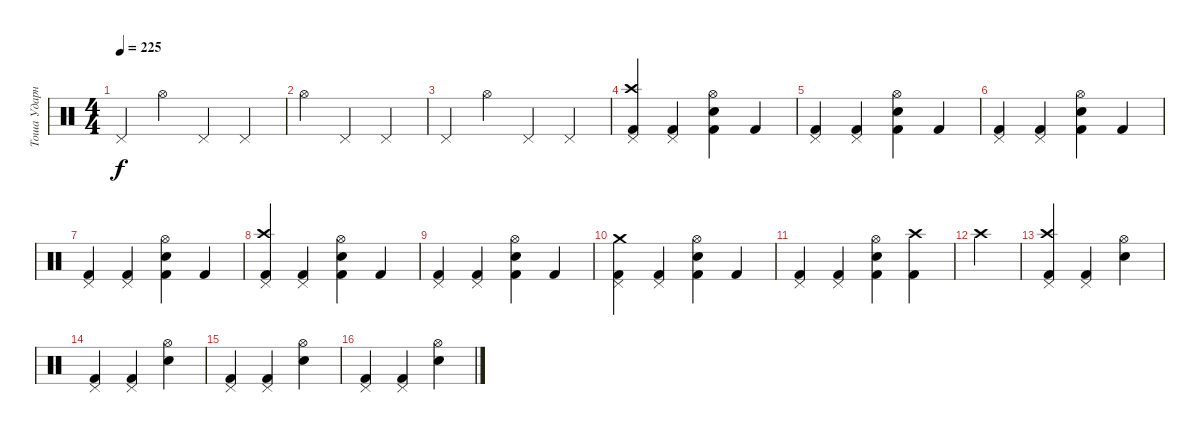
\track ("Тоша Ударные" "Тоша Ударн") {instrument percussion}
\staff {score}
\articulation defaults
\ts (4 4)
\tempo 225
\clef neutral
\ks c "Pedal Hi-Hat (hit)".4{dy f} "Hi-Hat (open)".4 "Pedal Hi-Hat (hit)".4 "Pedal Hi-Hat (hit)".4
|
"Hi-Hat (open)".4 "Pedal Hi-Hat (hit)".4 "Pedal Hi-Hat (hit)".4 |
"Pedal Hi-Hat (hit)".4 "Hi-Hat (open)".4 "Pedal Hi-Hat (hit)".4 "Pedal Hi-Hat (hit)".4 |
("Crash high (hit)" "Pedal Hi-Hat (hit)" "Kick (hit) 2").4 ("Pedal Hi-Hat (hit)" "Kick (hit) 2").4 ("Electric Snare (hit)" "Hi-Hat (open)" "Kick (hit) 2").4 "Kick (hit) 2".4 |
("Pedal Hi-Hat (hit)" "Kick (hit) 2").4 ("Pedal Hi-Hat (hit)" "Kick (hit) 2").4 ("Electric Snare (hit)" "Hi-Hat (open)" "Kick (hit) 2").4 "Kick (hit) 2".4 |
("Pedal Hi-Hat (hit)" "Kick (hit) 2").4 ("Pedal Hi-Hat (hit)" "Kick (hit) 2").4 ("Electric Snare (hit)" "Hi-Hat (open)" "Kick (hit) 2").4 "Kick (hit) 2".4 |
("Pedal Hi-Hat (hit)" "Kick (hit) 2").4 ("Pedal Hi-Hat (hit)" "Kick (hit) 2").4 ("Electric Snare (hit)" "Hi-Hat (open)" "Kick (hit) 2").4 "Kick (hit) 2".4 |
("Crash high (hit)" "Pedal Hi-Hat (hit)" "Kick (hit) 2").4 ("Pedal Hi-Hat (hit)" "Kick (hit) 2").4 ("Electric Snare (hit)" "Hi-Hat (open)" "Kick (hit) 2").4 "Kick (hit) 2".4 |
("Pedal Hi-Hat (hit)" "Kick (hit) 2").4 ("Pedal Hi-Hat (hit)" "Kick (hit) 2").4 ("Electric Snare (hit)" "Hi-Hat (open)" "Kick (hit) 2").4 "Kick (hit) 2".4 |
("Crash medium (hit)" "Pedal Hi-Hat (hit)" "Kick (hit) 2").4 ("Pedal Hi-Hat (hit)" "Kick (hit) 2").4 ("Electric Snare (hit)" "Hi-Hat (open)" "Kick (hit) 2").4 "Kick (hit) 2".4 |
("Pedal Hi-Hat (hit)" "Kick (hit) 2").4 ("Pedal Hi-Hat (hit)" "Kick (hit) 2").4 ("Electric Snare (hit)" "Hi-Hat (open)" "Kick (hit) 2").4 ("Crash high (hit)" "Kick (hit) 2").4 |
"Crash high (hit)".4 |
("Crash high (hit)" "Pedal Hi-Hat (hit)" "Kick (hit) 2").4 ("Pedal Hi-Hat (hit)" "Kick (hit) 2").4 ("Hi-Hat (open)" "Electric Snare (hit)").4 |
("Pedal Hi-Hat (hit)" "Kick (hit) 2").4 ("Pedal Hi-Hat (hit)" "Kick (hit) 2").4 ("Hi-Hat (open)" "Electric Snare (hit)").4 |
("Pedal Hi-Hat (hit)" "Kick (hit) 2").4 ("Pedal Hi-Hat (hit)" "Kick (hit) 2").4 ("Hi-Hat (open)" "Electric Snare (hit)").4 |
("Pedal Hi-Hat (hit)" "Kick (hit) 2").4 ("Pedal Hi-Hat (hit)" "Kick (hit) 2").4 ("Hi-Hat (open)" "Electric Snare (hit)").4
